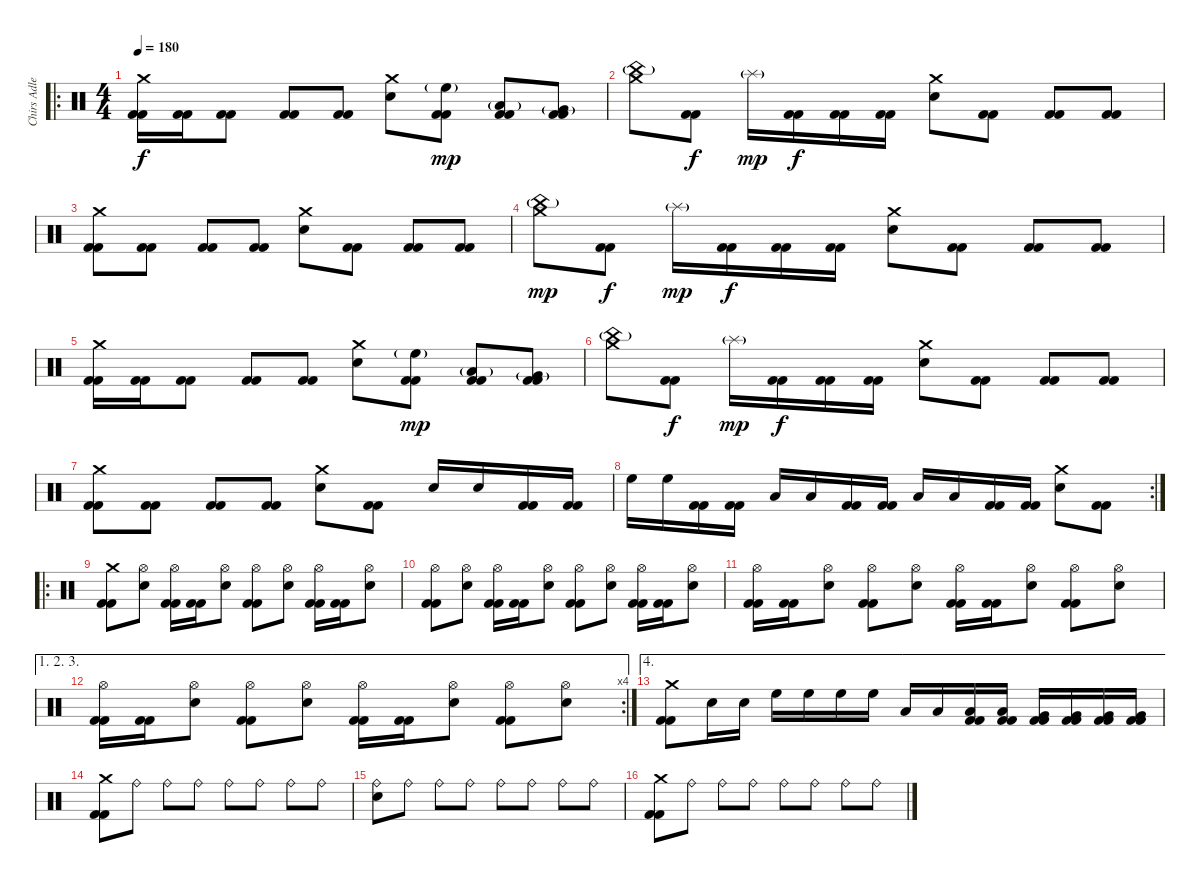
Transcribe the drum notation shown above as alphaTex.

\track ("Chirs Adler" "Chirs Adle") {instrument percussion}
\staff {score}
\articulation defaults
\ro
\ts (4 4)
\section ("" "")
\tempo 180
\clef neutral
\ks c
("Crash medium (hit)" "Kick (hit) 2" "Kick (hit) 2").16{dy f} ("Kick (hit) 2" "Kick (hit) 2").16 ("Kick (hit) 2" "Kick (hit) 2").8 ("Kick (hit) 2" "Kick (hit) 2").8 ("Kick (hit) 2" "Kick (hit) 2").8 ("Crash medium (hit)" "Electric Snare (hit)").8 ("High Floor Tom (hit)"{g} "Kick (hit) 2" "Kick (hit) 2").8{dy mp} ("Low Tom (hit)"{g} "Kick (hit) 2" "Kick (hit) 2").8 ("Very Low Tom (hit)"{g} "Kick (hit) 2" "Kick (hit) 2").8 |
("Crash medium (hit)" "China (hit)"{g}).8 ("Kick (hit) 2" "Kick (hit) 2").8{dy f} "Splash (hit)"{g}.16{dy mp} ("Kick (hit) 2" "Kick (hit) 2").16{dy f} ("Kick (hit) 2" "Kick (hit) 2").16 ("Kick (hit) 2" "Kick (hit) 2").16 ("Crash medium (hit)" "Electric Snare (hit)").8 ("Kick (hit) 2" "Kick (hit) 2").8 ("Kick (hit) 2" "Kick (hit) 2").8 ("Kick (hit) 2" "Kick (hit) 2").8 |
("Crash medium (hit)" "Kick (hit) 2" "Kick (hit) 2").8 ("Kick (hit) 2" "Kick (hit) 2").8 ("Kick (hit) 2" "Kick (hit) 2").8 ("Kick (hit) 2" "Kick (hit) 2").8 ("Crash medium (hit)" "Electric Snare (hit)").8 ("Kick (hit) 2" "Kick (hit) 2").8 ("Kick (hit) 2" "Kick (hit) 2").8 ("Kick (hit) 2" "Kick (hit) 2").8 |
("Crash medium (hit)" "China (hit)"{g}).8{dy mp} ("Kick (hit) 2" "Kick (hit) 2").8{dy f} "Splash (hit)"{g}.16{dy mp} ("Kick (hit) 2" "Kick (hit) 2").16{dy f} ("Kick (hit) 2" "Kick (hit) 2").16 ("Kick (hit) 2" "Kick (hit) 2").16 ("Crash medium (hit)" "Electric Snare (hit)").8 ("Kick (hit) 2" "Kick (hit) 2").8 ("Kick (hit) 2" "Kick (hit) 2").8 ("Kick (hit) 2" "Kick (hit) 2").8 |
("Crash medium (hit)" "Kick (hit) 2" "Kick (hit) 2").16 ("Kick (hit) 2" "Kick (hit) 2").16 ("Kick (hit) 2" "Kick (hit) 2").8 ("Kick (hit) 2" "Kick (hit) 2").8 ("Kick (hit) 2" "Kick (hit) 2").8 ("Crash medium (hit)" "Electric Snare (hit)").8 ("High Floor Tom (hit)"{g} "Kick (hit) 2" "Kick (hit) 2").8{dy mp} ("Low Tom (hit)"{g} "Kick (hit) 2" "Kick (hit) 2").8 ("Very Low Tom (hit)"{g} "Kick (hit) 2" "Kick (hit) 2").8 |
("Crash medium (hit)" "China (hit)"{g}).8 ("Kick (hit) 2" "Kick (hit) 2").8{dy f} "Splash (hit)"{g}.16{dy mp} ("Kick (hit) 2" "Kick (hit) 2").16{dy f} ("Kick (hit) 2" "Kick (hit) 2").16 ("Kick (hit) 2" "Kick (hit) 2").16 ("Crash medium (hit)" "Electric Snare (hit)").8 ("Kick (hit) 2" "Kick (hit) 2").8 ("Kick (hit) 2" "Kick (hit) 2").8 ("Kick (hit) 2" "Kick (hit) 2").8 |
("Crash medium (hit)" "Kick (hit) 2" "Kick (hit) 2").8 ("Kick (hit) 2" "Kick (hit) 2").8 ("Kick (hit) 2" "Kick (hit) 2").8 ("Kick (hit) 2" "Kick (hit) 2").8 ("Crash medium (hit)" "Electric Snare (hit)").8 ("Kick (hit) 2" "Kick (hit) 2").8 "Electric Snare (hit)".16 "Electric Snare (hit)".16 ("Kick (hit) 2" "Kick (hit) 2").16 ("Kick (hit) 2" "Kick (hit) 2").16 |
\rc 2 "High Floor Tom (hit)".16 "High Floor Tom (hit)".16
("Kick (hit) 2" "Kick (hit) 2").16 ("Kick (hit) 2" "Kick (hit) 2").16 "Low Tom (hit)".16 "Low Tom (hit)".16 ("Kick (hit) 2" "Kick (hit) 2").16 ("Kick (hit) 2" "Kick (hit) 2").16 "Low Floor Tom (hit)".16 "Low Floor Tom (hit)".16 ("Kick (hit) 2" "Kick (hit) 2").16 ("Kick (hit) 2" "Kick (hit) 2").16 ("Crash medium (hit)" "Electric Snare (hit)").8 ("Kick (hit) 2" "Kick (hit) 2").8 |
\ro
\section ("" "")
("Crash medium (hit)" "Kick (hit) 2" "Kick (hit) 2").8 ("Hi-Hat (open)" "Electric Snare (hit)").8 ("Hi-Hat (open)" "Kick (hit) 2" "Kick (hit) 2").16 ("Kick (hit) 2" "Kick (hit) 2").16 ("Hi-Hat (open)" "Electric Snare (hit)").8 ("Hi-Hat (open)" "Kick (hit) 2" "Kick (hit) 2").8 ("Hi-Hat (open)" "Electric Snare (hit)").8 ("Hi-Hat (open)" "Kick (hit) 2" "Kick (hit) 2").16 ("Kick (hit) 2" "Kick (hit) 2").16 ("Hi-Hat (open)" "Electric Snare (hit)").8 |
("Hi-Hat (open)" "Kick (hit) 2" "Kick (hit) 2").8 ("Hi-Hat (open)" "Electric Snare (hit)").8 ("Hi-Hat (open)" "Kick (hit) 2" "Kick (hit) 2").16 ("Kick (hit) 2" "Kick (hit) 2").16 ("Hi-Hat (open)" "Electric Snare (hit)").8 ("Hi-Hat (open)" "Kick (hit) 2" "Kick (hit) 2").8 ("Hi-Hat (open)" "Electric Snare (hit)").8 ("Hi-Hat (open)" "Kick (hit) 2" "Kick (hit) 2").16 ("Kick (hit) 2" "Kick (hit) 2").16 ("Hi-Hat (open)" "Electric Snare (hit)").8 |
("Hi-Hat (open)" "Kick (hit) 2" "Kick (hit) 2").16 ("Kick (hit) 2" "Kick (hit) 2").16 ("Hi-Hat (open)" "Electric Snare (hit)").8 ("Hi-Hat (open)" "Kick (hit) 2" "Kick (hit) 2").8 ("Hi-Hat (open)" "Electric Snare (hit)").8 ("Hi-Hat (open)" "Kick (hit) 2" "Kick (hit) 2").16 ("Kick (hit) 2" "Kick (hit) 2").16 ("Hi-Hat (open)" "Electric Snare (hit)").8 ("Hi-Hat (open)" "Kick (hit) 2" "Kick (hit) 2").8 ("Hi-Hat (open)" "Electric Snare (hit)").8 |
\ae (1 2 3)
\rc 4
("Hi-Hat (open)" "Kick (hit) 2" "Kick (hit) 2").16 ("Kick (hit) 2" "Kick (hit) 2").16 ("Hi-Hat (open)" "Electric Snare (hit)").8 ("Hi-Hat (open)" "Kick (hit) 2" "Kick (hit) 2").8 ("Hi-Hat (open)" "Electric Snare (hit)").8 ("Hi-Hat (open)" "Kick (hit) 2" "Kick (hit) 2").16 ("Kick (hit) 2" "Kick (hit) 2").16 ("Hi-Hat (open)" "Electric Snare (hit)").8 ("Hi-Hat (open)" "Kick (hit) 2" "Kick (hit) 2").8 ("Hi-Hat (open)" "Electric Snare (hit)").8 |
\ae 4
\section ("" "")
("Crash medium (hit)" "Kick (hit) 2" "Kick (hit) 2").8 "Electric Snare (hit)".16 "Electric Snare (hit)".16 "High Floor Tom (hit)".16 "High Floor Tom (hit)".16 "High Floor Tom (hit)".16 "High Floor Tom (hit)".16 "Low Tom (hit)".16 "Low Tom (hit)".16 ("Low Tom (hit)" "Kick (hit) 2" "Kick (hit) 2").16 ("Low Tom (hit)" "Kick (hit) 2" "Kick (hit) 2").16 ("Very Low Tom (hit)" "Kick (hit) 2" "Kick (hit) 2").16 ("Very Low Tom (hit)" "Kick (hit) 2" "Kick (hit) 2").16 ("Very Low Tom (hit)" "Kick (hit) 2" "Kick (hit) 2").16 ("Very Low Tom (hit)" "Kick (hit) 2" "Kick (hit) 2").16 |
\section ("" "")
("Crash medium (hit)" "Kick (hit) 2" "Kick (hit) 2").8 "Ride (bell)".8 "Ride (bell)".8 "Ride (bell)".8 "Ride (bell)".8 "Ride (bell)".8 "Ride (bell)".8 "Ride (bell)".8 |
("Ride (bell)" "Electric Snare (hit)").8 "Ride (bell)".8 "Ride (bell)".8 "Ride (bell)".8 "Ride (bell)".8 "Ride (bell)".8 "Ride (bell)".8 "Ride (bell)".8 |
("Crash medium (hit)" "Kick (hit) 2" "Kick (hit) 2").8 "Ride (bell)".8 "Ride (bell)".8 "Ride (bell)".8 "Ride (bell)".8 "Ride (bell)".8 "Ride (bell)".8 "Ride (bell)".8
